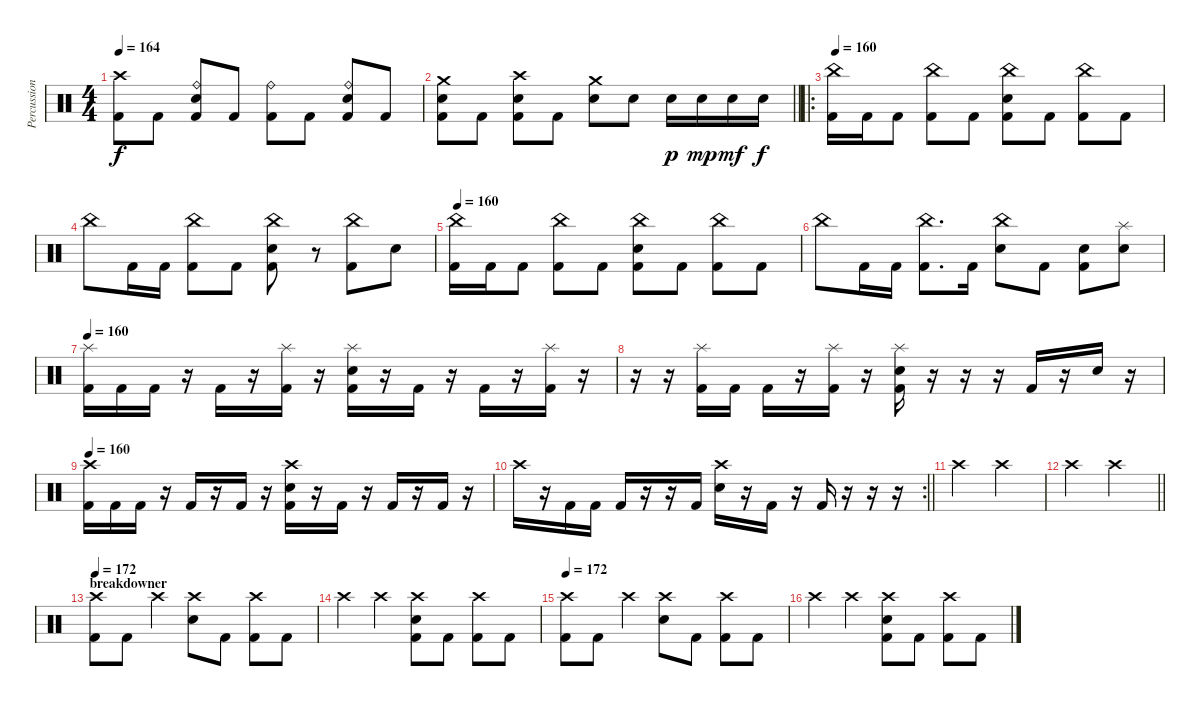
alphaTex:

\track ("Percussions" "Percussion") {instrument percussion}
\staff {score}
\articulation defaults
\ts (4 4)
\tempo 164
\clef neutral
\ks c
("Crash high (hit)" "Kick (hit) 2").8{dy f} "Kick (hit) 2".8 ("Ride (bell)" "Electric Snare (hit)" "Kick (hit) 2").8 "Kick (hit) 2".8 ("Ride (bell)" "Kick (hit) 2").8 "Kick (hit) 2".8 ("Ride (bell)" "Electric Snare (hit)" "Kick (hit) 2").8 "Kick (hit) 2".8 |
\barLineRight lightlight
("Crash medium (hit)" "Electric Snare (hit)" "Kick (hit) 2").8 "Kick (hit) 2".8 ("Crash high (hit)" "Electric Snare (hit)" "Kick (hit) 2").8 "Kick (hit) 2".8 ("Crash medium (hit)" "Electric Snare (hit)").8 "Electric Snare (hit)".8 "Electric Snare (hit)".16{dy p} "Electric Snare (hit)".16{dy mp} "Electric Snare (hit)".16{dy mf} "Electric Snare (hit)".16{dy f} |
\ro
\tempo 160
("China (hit)" "Kick (hit) 2").16 "Kick (hit) 2".16 "Kick (hit) 2".8 ("China (hit)" "Kick (hit) 2").8 "Kick (hit) 2".8 ("China (hit)" "Electric Snare (hit)" "Kick (hit) 2").8 "Kick (hit) 2".8 ("China (hit)" "Kick (hit) 2").8 "Kick (hit) 2".8 |
"China (hit)".8 "Kick (hit) 2".16 "Kick (hit) 2".16 ("China (hit)" "Kick (hit) 2").8 "Kick (hit) 2".8 ("China (hit)" "Electric Snare (hit)" "Kick (hit) 2").8 r.8 ("China (hit)" "Kick (hit) 2").8 "Electric Snare (hit)".8 |
\tempo 160
("China (hit)" "Kick (hit) 2").16 "Kick (hit) 2".16 "Kick (hit) 2".8 ("China (hit)" "Kick (hit) 2").8 "Kick (hit) 2".8 ("Electric Snare (hit)" "China (hit)" "Kick (hit) 2").8 "Kick (hit) 2".8 ("China (hit)" "Kick (hit) 2").8 "Kick (hit) 2".8 |
"China (hit)".8 "Kick (hit) 2".16 "Kick (hit) 2".16 ("China (hit)" "Kick (hit) 2").8{d} "Kick (hit) 2".16 ("China (hit)" "Electric Snare (hit)").8 "Kick (hit) 2".8 ("Electric Snare (hit)" "Kick (hit) 2").8 ("Electric Snare (hit)" "Splash (hit)").8 |
\tempo 160
("Splash (hit)" "Kick (hit) 2").16 "Kick (hit) 2".16 "Kick (hit) 2".16 r.16 "Kick (hit) 2".16 r.16 ("Splash (hit)" "Kick (hit) 2").16 r.16 ("Splash (hit)" "Electric Snare (hit)" "Kick (hit) 2").16 r.16 "Kick (hit) 2".16 r.16 "Kick (hit) 2".16 r.16 ("Splash (hit)" "Kick (hit) 2").16 r.16 |
r.16 r.16 ("Splash (hit)" "Kick (hit) 2").16 "Kick (hit) 2".16 "Kick (hit) 2".16 r.16 ("Splash (hit)" "Kick (hit) 2").16 r.16 ("Splash (hit)" "Electric Snare (hit)" "Kick (hit) 2").16 r.16 r.16 r.16 "Kick (hit) 2".16 r.16 "Electric Snare (hit)".16 r.16 |
\tempo 160
("Crash high (hit)" "Kick (hit) 2").16 "Kick (hit) 2".16 "Kick (hit) 2".16 r.16 "Kick (hit) 2".16 r.16 "Kick (hit) 2".16 r.16 ("Crash high (hit)" "Electric Snare (hit)" "Kick (hit) 2").16 r.16 "Kick (hit) 2".16 r.16 "Kick (hit) 2".16 r.16 "Kick (hit) 2".16 r.16 |
\rc 2
\barLineRight lightlight "Crash high (hit)".16
r.16 "Kick (hit) 2".16 "Kick (hit) 2".16 "Kick (hit) 2".16 r.16 r.16 "Kick (hit) 2".16 ("Crash high (hit)" "Electric Snare (hit)").16 r.16 "Kick (hit) 2".16 r.16 "Kick (hit) 2".16 r.16 r.16 r.16 |
"Crash high (hit)".2 "Crash high (hit)".2 |
\barLineRight lightlight "Crash high (hit)".2 "Crash high (hit)".2
|
\section ("" "breakdowner")
\tempo 180
\tempo 172
("Crash high (hit)" "Kick (hit) 2").8 "Kick (hit) 2".8 "Crash high (hit)".4 ("Crash high (hit)" "Electric Snare (hit)").8 "Kick (hit) 2".8 ("Crash high (hit)" "Kick (hit) 2").8 "Kick (hit) 2".8 |
"Crash high (hit)".4 "Crash high (hit)".4 ("Crash high (hit)" "Electric Snare (hit)" "Kick (hit) 2").8 "Kick (hit) 2".8 ("Crash high (hit)" "Kick (hit) 2").8 "Kick (hit) 2".8 |
\tempo 172
("Crash high (hit)" "Kick (hit) 2").8 "Kick (hit) 2".8 "Crash high (hit)".4 ("Crash high (hit)" "Electric Snare (hit)").8 "Kick (hit) 2".8 ("Crash high (hit)" "Kick (hit) 2").8 "Kick (hit) 2".8 |
"Crash high (hit)".4 "Crash high (hit)".4 ("Crash high (hit)" "Electric Snare (hit)" "Kick (hit) 2").8 "Kick (hit) 2".8 ("Crash high (hit)" "Kick (hit) 2").8 "Kick (hit) 2".8
